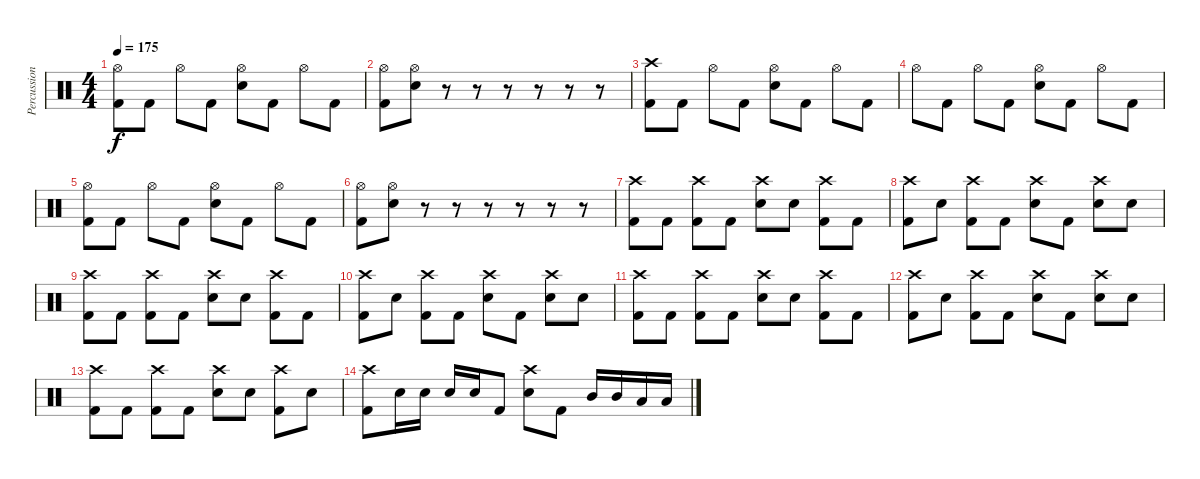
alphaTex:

\track ("Percussion" "Percussion") {instrument percussion}
\staff {score}
\articulation defaults
\ts (4 4)
\tempo 175
\clef neutral
\ks c
("Kick (hit) 2" "Hi-Hat (open)").8{dy f} "Kick (hit) 2".8 "Hi-Hat (open)".8 "Kick (hit) 2".8 ("Electric Snare (hit)" "Hi-Hat (open)").8 "Kick (hit) 2".8 "Hi-Hat (open)".8 "Kick (hit) 2".8 |
("Kick (hit) 2" "Hi-Hat (open)").8 ("Electric Snare (hit)" "Hi-Hat (open)").8 r.8 r.8 r.8 r.8 r.8 r.8 |
("Kick (hit) 2" "Crash high (hit)").8 "Kick (hit) 2".8 "Hi-Hat (open)".8 "Kick (hit) 2".8 ("Electric Snare (hit)" "Hi-Hat (open)").8 "Kick (hit) 2".8 "Hi-Hat (open)".8 "Kick (hit) 2".8 |
"Hi-Hat (open)".8 "Kick (hit) 2".8 "Hi-Hat (open)".8 "Kick (hit) 2".8 ("Electric Snare (hit)" "Hi-Hat (open)").8 "Kick (hit) 2".8 "Hi-Hat (open)".8 "Kick (hit) 2".8 |
("Kick (hit) 2" "Hi-Hat (open)").8 "Kick (hit) 2".8 "Hi-Hat (open)".8 "Kick (hit) 2".8 ("Electric Snare (hit)" "Hi-Hat (open)").8 "Kick (hit) 2".8 "Hi-Hat (open)".8 "Kick (hit) 2".8 |
("Kick (hit) 2" "Hi-Hat (open)").8 ("Electric Snare (hit)" "Hi-Hat (open)").8 r.8 r.8 r.8 r.8 r.8 r.8 |
("Kick (hit) 2" "Crash high (hit)").8 "Kick (hit) 2".8 ("Kick (hit) 2" "Crash high (hit)").8 "Kick (hit) 2".8 ("Electric Snare (hit)" "Crash high (hit)").8 "Electric Snare (hit)".8 ("Kick (hit) 2" "Crash high (hit)").8 "Kick (hit) 2".8 |
("Kick (hit) 2" "Crash high (hit)").8 "Electric Snare (hit)".8 ("Kick (hit) 2" "Crash high (hit)").8 "Kick (hit) 2".8 ("Electric Snare (hit)" "Crash high (hit)").8 "Kick (hit) 2".8 ("Electric Snare (hit)" "Crash high (hit)").8 "Electric Snare (hit)".8 |
("Kick (hit) 2" "Crash high (hit)").8 "Kick (hit) 2".8 ("Kick (hit) 2" "Crash high (hit)").8 "Kick (hit) 2".8 ("Electric Snare (hit)" "Crash high (hit)").8 "Electric Snare (hit)".8 ("Kick (hit) 2" "Crash high (hit)").8 "Kick (hit) 2".8 |
("Kick (hit) 2" "Crash high (hit)").8 "Electric Snare (hit)".8 ("Kick (hit) 2" "Crash high (hit)").8 "Kick (hit) 2".8 ("Electric Snare (hit)" "Crash high (hit)").8 "Kick (hit) 2".8 ("Electric Snare (hit)" "Crash high (hit)").8 "Electric Snare (hit)".8 |
("Kick (hit) 2" "Crash high (hit)").8 "Kick (hit) 2".8 ("Kick (hit) 2" "Crash high (hit)").8 "Kick (hit) 2".8 ("Electric Snare (hit)" "Crash high (hit)").8 "Electric Snare (hit)".8 ("Kick (hit) 2" "Crash high (hit)").8 "Kick (hit) 2".8 |
("Kick (hit) 2" "Crash high (hit)").8 "Electric Snare (hit)".8 ("Kick (hit) 2" "Crash high (hit)").8 "Kick (hit) 2".8 ("Electric Snare (hit)" "Crash high (hit)").8 "Kick (hit) 2".8 ("Electric Snare (hit)" "Crash high (hit)").8 "Electric Snare (hit)".8 |
("Kick (hit) 2" "Crash high (hit)").8 "Kick (hit) 2".8 ("Kick (hit) 2" "Crash high (hit)").8 "Kick (hit) 2".8 ("Electric Snare (hit)" "Crash high (hit)").8 "Electric Snare (hit)".8 ("Kick (hit) 2" "Crash high (hit)").8 "Electric Snare (hit)".8 |
("Kick (hit) 2" "Crash high (hit)").8 "Electric Snare (hit)".16 "Electric Snare (hit)".16 "Electric Snare (hit)".16 "Electric Snare (hit)".16 "Kick (hit) 2".8 ("Electric Snare (hit)" "Crash high (hit)").8 "Kick (hit) 2".8 "Mid Tom (hit)".16 "Mid Tom (hit)".16 "Low Tom (hit)".16 "Low Tom (hit)".16
